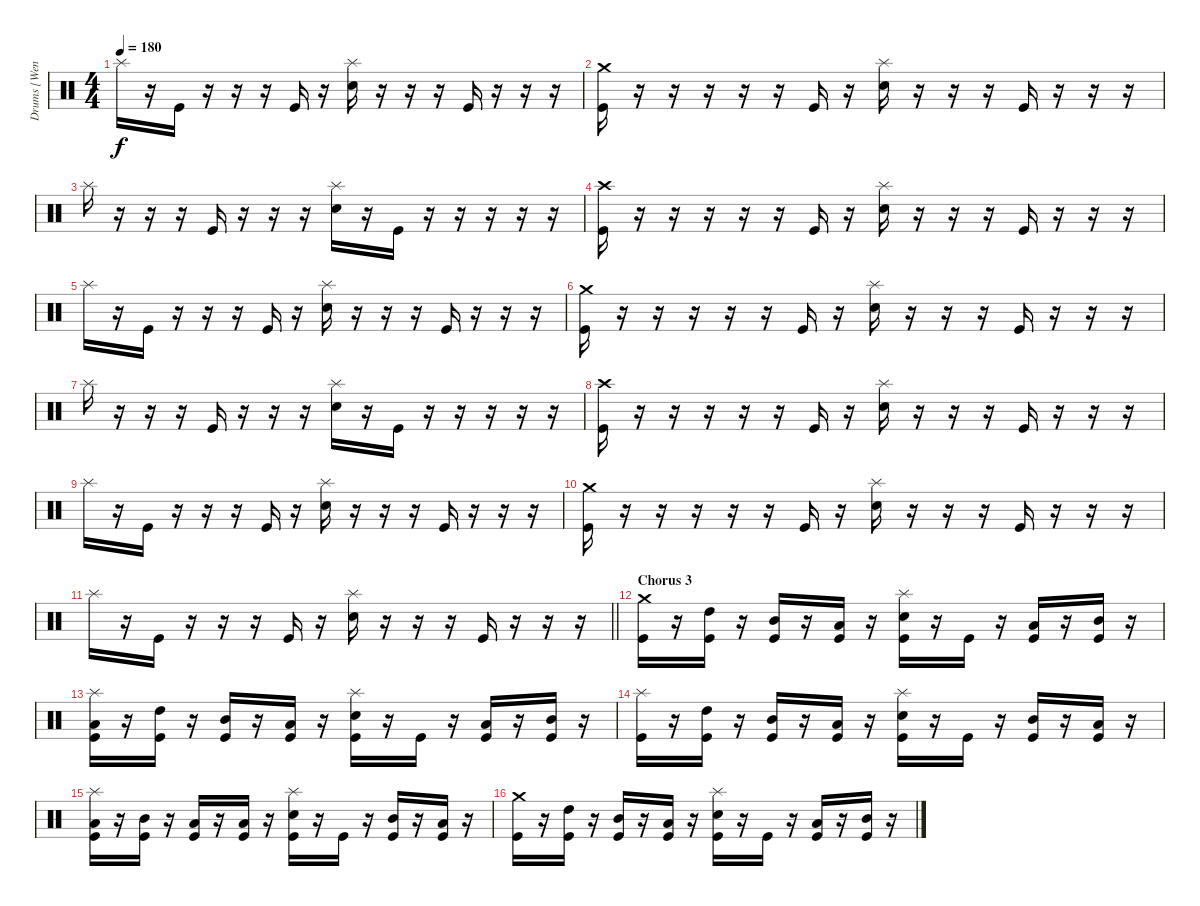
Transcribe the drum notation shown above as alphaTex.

\track ("Drums [Wengren]" "Drums [Wen") {instrument percussion}
\staff {score}
\articulation defaults
\ts (4 4)
\tempo 180
\clef neutral
\ks c "Splash (hit)".16{dy f}
r.16 "Kick (hit)".16 r.16 r.16 r.16 "Kick (hit)".16 r.16 ("Splash (hit)" "Electric Snare (hit)").16 r.16 r.16 r.16 "Kick (hit)".16 r.16 r.16 r.16 |
("Crash medium (hit)" "Kick (hit)").16 r.16 r.16 r.16 r.16 r.16 "Kick (hit)".16 r.16 ("Splash (hit)" "Electric Snare (hit)").16 r.16 r.16 r.16 "Kick (hit)".16 r.16 r.16 r.16 |
"Splash (hit)".16 r.16 r.16 r.16 "Kick (hit)".16 r.16 r.16 r.16 ("Splash (hit)" "Electric Snare (hit)").16 r.16 "Kick (hit)".16 r.16 r.16 r.16 r.16 r.16 |
("Crash high (hit)" "Kick (hit)").16 r.16 r.16 r.16 r.16 r.16 "Kick (hit)".16 r.16 ("Splash (hit)" "Electric Snare (hit)").16 r.16 r.16 r.16 "Kick (hit)".16 r.16 r.16 r.16 |
"Splash (hit)".16 r.16 "Kick (hit)".16 r.16 r.16 r.16 "Kick (hit)".16 r.16 ("Splash (hit)" "Electric Snare (hit)").16 r.16 r.16 r.16 "Kick (hit)".16 r.16 r.16 r.16 |
("Crash medium (hit)" "Kick (hit)").16 r.16 r.16 r.16 r.16 r.16 "Kick (hit)".16 r.16 ("Splash (hit)" "Electric Snare (hit)").16 r.16 r.16 r.16 "Kick (hit)".16 r.16 r.16 r.16 |
"Splash (hit)".16 r.16 r.16 r.16 "Kick (hit)".16 r.16 r.16 r.16 ("Splash (hit)" "Electric Snare (hit)").16 r.16 "Kick (hit)".16 r.16 r.16 r.16 r.16 r.16 |
("Crash high (hit)" "Kick (hit)").16 r.16 r.16 r.16 r.16 r.16 "Kick (hit)".16 r.16 ("Splash (hit)" "Electric Snare (hit)").16 r.16 r.16 r.16 "Kick (hit)".16 r.16 r.16 r.16 |
"Splash (hit)".16 r.16 "Kick (hit)".16 r.16 r.16 r.16 "Kick (hit)".16 r.16 ("Splash (hit)" "Electric Snare (hit)").16 r.16 r.16 r.16 "Kick (hit)".16 r.16 r.16 r.16 |
("Crash medium (hit)" "Kick (hit)").16 r.16 r.16 r.16 r.16 r.16 "Kick (hit)".16 r.16 ("Splash (hit)" "Electric Snare (hit)").16 r.16 r.16 r.16 "Kick (hit)".16 r.16 r.16 r.16 |
\barLineRight lightlight "Splash (hit)".16
r.16 "Kick (hit)".16 r.16 r.16 r.16 "Kick (hit)".16 r.16 ("Splash (hit)" "Electric Snare (hit)").16 r.16 r.16 r.16 "Kick (hit)".16 r.16 r.16 r.16 |
\section ("" "Chorus 3")
("Crash medium (hit)" "Kick (hit)").16 r.16 ("High Tom (hit)" "Kick (hit)").16 r.16 ("Mid Tom (hit)" "Kick (hit)").16 r.16 ("Low Tom (hit)" "Kick (hit)").16 r.16 ("Splash (hit)" "Electric Snare (hit)" "Kick (hit)").16 r.16 "Kick (hit)".16 r.16 ("Low Tom (hit)" "Kick (hit)").16 r.16 ("Mid Tom (hit)" "Kick (hit)").16 r.16 |
("Splash (hit)" "Low Floor Tom (hit)" "Kick (hit)").16 r.16 ("High Tom (hit)" "Kick (hit)").16 r.16 ("Mid Tom (hit)" "Kick (hit)").16 r.16 ("Low Tom (hit)" "Kick (hit)").16 r.16 ("Splash (hit)" "Electric Snare (hit)" "Kick (hit)").16 r.16 "Kick (hit)".16 r.16 ("Low Tom (hit)" "Kick (hit)").16 r.16 ("Mid Tom (hit)" "Kick (hit)").16 r.16 |
("Splash (hit)" "Kick (hit)").16 r.16 ("High Tom (hit)" "Kick (hit)").16 r.16 ("Mid Tom (hit)" "Kick (hit)").16 r.16 ("Low Tom (hit)" "Kick (hit)").16 r.16 ("Splash (hit)" "Electric Snare (hit)" "Kick (hit)").16 r.16 "Kick (hit)".16 r.16 ("Mid Tom (hit)" "Kick (hit)").16 r.16 ("Low Tom (hit)" "Kick (hit)").16 r.16 |
("Splash (hit)" "Low Floor Tom (hit)" "Kick (hit)").16 r.16 ("Mid Tom (hit)" "Kick (hit)").16 r.16 ("Low Tom (hit)" "Kick (hit)").16 r.16 ("Low Floor Tom (hit)" "Kick (hit)").16 r.16 ("Splash (hit)" "Electric Snare (hit)" "Kick (hit)").16 r.16 "Kick (hit)".16 r.16 ("Mid Tom (hit)" "Kick (hit)").16 r.16 ("Low Floor Tom (hit)" "Kick (hit)").16 r.16 |
("Crash medium (hit)" "Kick (hit)").16 r.16 ("High Tom (hit)" "Kick (hit)").16 r.16 ("Mid Tom (hit)" "Kick (hit)").16 r.16 ("Low Tom (hit)" "Kick (hit)").16 r.16 ("Splash (hit)" "Electric Snare (hit)" "Kick (hit)").16 r.16 "Kick (hit)".16 r.16 ("Low Tom (hit)" "Kick (hit)").16 r.16 ("Mid Tom (hit)" "Kick (hit)").16 r.16
